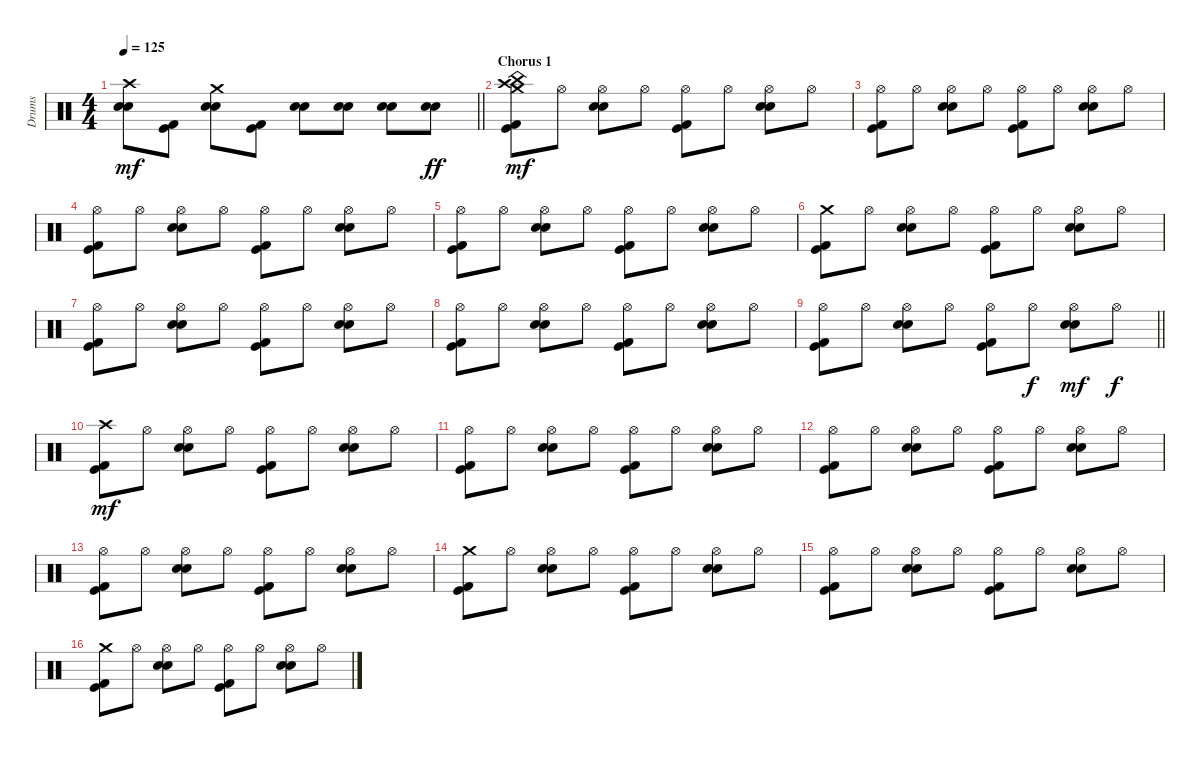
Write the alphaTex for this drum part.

\track ("Drums" "Drums") {instrument percussion}
\staff {score}
\articulation defaults
\ts (4 4)
\tempo 125
\clef neutral
\barLineRight lightlight
\ks c
("Crash high (hit)" "Snare (hit) 2" "Electric Snare (hit)").8{dy mf} ("Kick (hit) 2" "Kick (hit)").8 ("Crash medium (hit)" "Snare (hit) 2" "Electric Snare (hit)").8 ("Kick (hit) 2" "Kick (hit)").8 ("Snare (hit) 2" "Electric Snare (hit)").8 ("Snare (hit) 2" "Electric Snare (hit)").8 ("Snare (hit) 2" "Electric Snare (hit)").8 ("Snare (hit) 2" "Electric Snare (hit)").8{dy ff} |
\section ("" "Chorus 1")
("Crash high (hit)" "Crash medium (hit)" "China (hit)" "Kick (hit) 2" "Kick (hit)").8{dy mf} "Hi-Hat (open)".8 ("Hi-Hat (open)" "Snare (hit) 2" "Electric Snare (hit)").8 "Hi-Hat (open)".8 ("Hi-Hat (open)" "Kick (hit) 2" "Kick (hit)").8 "Hi-Hat (open)".8 ("Hi-Hat (open)" "Snare (hit) 2" "Electric Snare (hit)").8 "Hi-Hat (open)".8 |
("Hi-Hat (open)" "Kick (hit) 2" "Kick (hit)").8 "Hi-Hat (open)".8 ("Hi-Hat (open)" "Snare (hit) 2" "Electric Snare (hit)").8 "Hi-Hat (open)".8 ("Hi-Hat (open)" "Kick (hit) 2" "Kick (hit)").8 "Hi-Hat (open)".8 ("Hi-Hat (open)" "Snare (hit) 2" "Electric Snare (hit)").8 "Hi-Hat (open)".8 |
("Hi-Hat (open)" "Kick (hit) 2" "Kick (hit)").8 "Hi-Hat (open)".8 ("Hi-Hat (open)" "Snare (hit) 2" "Electric Snare (hit)").8 "Hi-Hat (open)".8 ("Hi-Hat (open)" "Kick (hit) 2" "Kick (hit)").8 "Hi-Hat (open)".8 ("Hi-Hat (open)" "Snare (hit) 2" "Electric Snare (hit)").8 "Hi-Hat (open)".8 |
("Hi-Hat (open)" "Kick (hit) 2" "Kick (hit)").8 "Hi-Hat (open)".8 ("Hi-Hat (open)" "Snare (hit) 2" "Electric Snare (hit)").8 "Hi-Hat (open)".8 ("Hi-Hat (open)" "Kick (hit) 2" "Kick (hit)").8 "Hi-Hat (open)".8 ("Hi-Hat (open)" "Snare (hit) 2" "Electric Snare (hit)").8 "Hi-Hat (open)".8 |
("Crash medium (hit)" "Kick (hit) 2" "Kick (hit)").8 "Hi-Hat (open)".8 ("Hi-Hat (open)" "Snare (hit) 2" "Electric Snare (hit)").8 "Hi-Hat (open)".8 ("Hi-Hat (open)" "Kick (hit) 2" "Kick (hit)").8 "Hi-Hat (open)".8 ("Hi-Hat (open)" "Snare (hit) 2" "Electric Snare (hit)").8 "Hi-Hat (open)".8 |
("Hi-Hat (open)" "Kick (hit) 2" "Kick (hit)").8 "Hi-Hat (open)".8 ("Hi-Hat (open)" "Snare (hit) 2" "Electric Snare (hit)").8 "Hi-Hat (open)".8 ("Hi-Hat (open)" "Kick (hit) 2" "Kick (hit)").8 "Hi-Hat (open)".8 ("Hi-Hat (open)" "Snare (hit) 2" "Electric Snare (hit)").8 "Hi-Hat (open)".8 |
("Hi-Hat (open)" "Kick (hit) 2" "Kick (hit)").8 "Hi-Hat (open)".8 ("Hi-Hat (open)" "Snare (hit) 2" "Electric Snare (hit)").8 "Hi-Hat (open)".8 ("Hi-Hat (open)" "Kick (hit) 2" "Kick (hit)").8 "Hi-Hat (open)".8 ("Hi-Hat (open)" "Snare (hit) 2" "Electric Snare (hit)").8 "Hi-Hat (open)".8 |
\barLineRight lightlight
("Hi-Hat (open)" "Kick (hit) 2" "Kick (hit)").8 "Hi-Hat (open)".8 ("Hi-Hat (open)" "Snare (hit) 2" "Electric Snare (hit)").8 "Hi-Hat (open)".8 ("Hi-Hat (open)" "Kick (hit) 2" "Kick (hit)").8 "Hi-Hat (open)".8{dy f} ("Hi-Hat (open)" "Snare (hit) 2" "Electric Snare (hit)").8{dy mf} "Hi-Hat (open)".8{dy f} |
("Crash high (hit)" "Kick (hit) 2" "Kick (hit)").8{dy mf} "Hi-Hat (open)".8 ("Hi-Hat (open)" "Snare (hit) 2" "Electric Snare (hit)").8 "Hi-Hat (open)".8 ("Hi-Hat (open)" "Kick (hit) 2" "Kick (hit)").8 "Hi-Hat (open)".8 ("Hi-Hat (open)" "Snare (hit) 2" "Electric Snare (hit)").8 "Hi-Hat (open)".8 |
("Hi-Hat (open)" "Kick (hit) 2" "Kick (hit)").8 "Hi-Hat (open)".8 ("Hi-Hat (open)" "Snare (hit) 2" "Electric Snare (hit)").8 "Hi-Hat (open)".8 ("Hi-Hat (open)" "Kick (hit) 2" "Kick (hit)").8 "Hi-Hat (open)".8 ("Hi-Hat (open)" "Snare (hit) 2" "Electric Snare (hit)").8 "Hi-Hat (open)".8 |
("Hi-Hat (open)" "Kick (hit) 2" "Kick (hit)").8 "Hi-Hat (open)".8 ("Hi-Hat (open)" "Snare (hit) 2" "Electric Snare (hit)").8 "Hi-Hat (open)".8 ("Hi-Hat (open)" "Kick (hit) 2" "Kick (hit)").8 "Hi-Hat (open)".8 ("Hi-Hat (open)" "Snare (hit) 2" "Electric Snare (hit)").8 "Hi-Hat (open)".8 |
("Hi-Hat (open)" "Kick (hit) 2" "Kick (hit)").8 "Hi-Hat (open)".8 ("Hi-Hat (open)" "Snare (hit) 2" "Electric Snare (hit)").8 "Hi-Hat (open)".8 ("Hi-Hat (open)" "Kick (hit) 2" "Kick (hit)").8 "Hi-Hat (open)".8 ("Hi-Hat (open)" "Snare (hit) 2" "Electric Snare (hit)").8 "Hi-Hat (open)".8 |
("Crash medium (hit)" "Kick (hit) 2" "Kick (hit)").8 "Hi-Hat (open)".8 ("Hi-Hat (open)" "Snare (hit) 2" "Electric Snare (hit)").8 "Hi-Hat (open)".8 ("Hi-Hat (open)" "Kick (hit) 2" "Kick (hit)").8 "Hi-Hat (open)".8 ("Hi-Hat (open)" "Snare (hit) 2" "Electric Snare (hit)").8 "Hi-Hat (open)".8 |
("Hi-Hat (open)" "Kick (hit) 2" "Kick (hit)").8 "Hi-Hat (open)".8 ("Hi-Hat (open)" "Snare (hit) 2" "Electric Snare (hit)").8 "Hi-Hat (open)".8 ("Hi-Hat (open)" "Kick (hit) 2" "Kick (hit)").8 "Hi-Hat (open)".8 ("Hi-Hat (open)" "Snare (hit) 2" "Electric Snare (hit)").8 "Hi-Hat (open)".8 |
("Crash medium (hit)" "Kick (hit) 2" "Kick (hit)").8 "Hi-Hat (open)".8 ("Hi-Hat (open)" "Snare (hit) 2" "Electric Snare (hit)").8 "Hi-Hat (open)".8 ("Hi-Hat (open)" "Kick (hit) 2" "Kick (hit)").8 "Hi-Hat (open)".8 ("Hi-Hat (open)" "Snare (hit) 2" "Electric Snare (hit)").8 "Hi-Hat (open)".8
